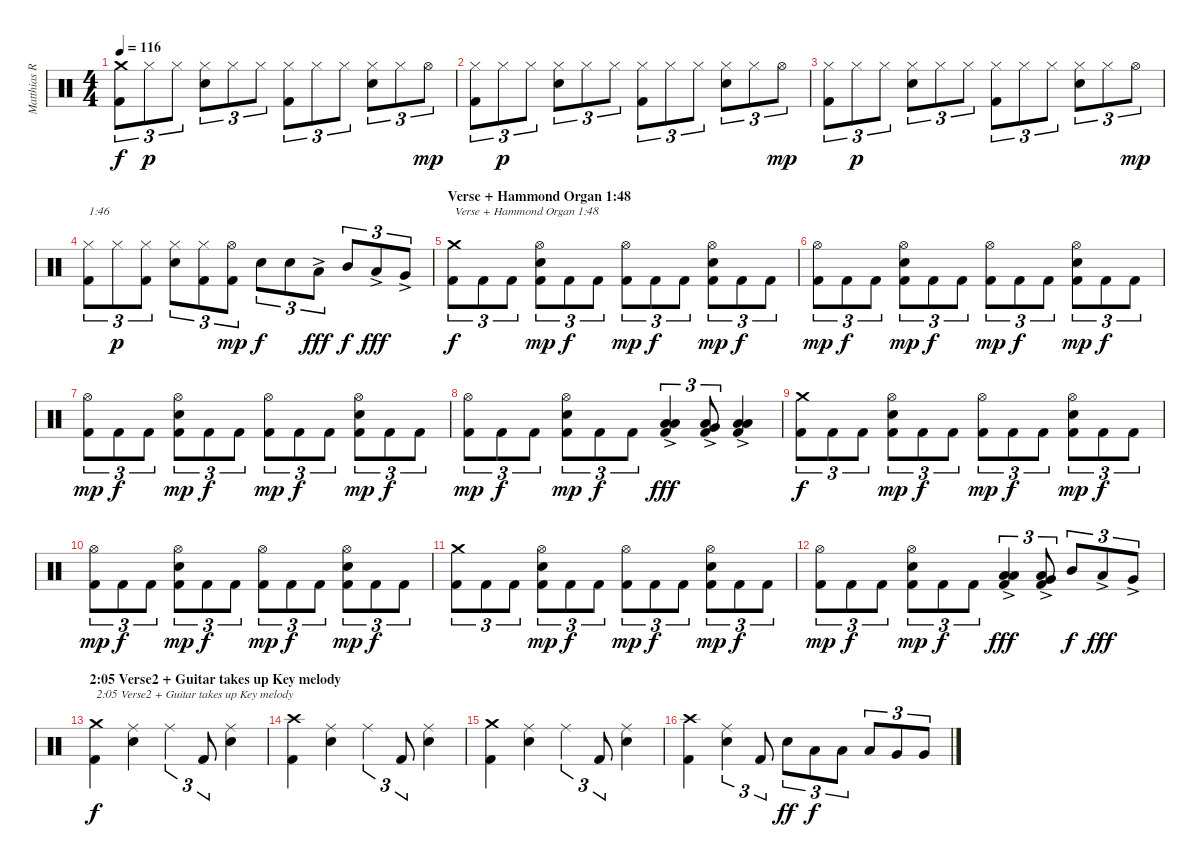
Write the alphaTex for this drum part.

\track ("Matthias R." "Matthias R") {instrument percussion}
\staff {score}
\articulation defaults
\ts (4 4)
\tempo 116
\clef neutral
\ks c
("Kick (hit) 2" "Crash medium (hit)").8{tu (3 2) dy f} "Hi-Hat (closed)".8{tu (3 2) dy p} "Hi-Hat (closed)".8{tu (3 2)} ("Electric Snare (hit)" "Hi-Hat (closed)").8{tu (3 2)} "Hi-Hat (closed)".8{tu (3 2)} "Hi-Hat (closed)".8{tu (3 2)} ("Kick (hit) 2" "Hi-Hat (closed)").8{tu (3 2)} "Hi-Hat (closed)".8{tu (3 2)} "Hi-Hat (closed)".8{tu (3 2)} ("Electric Snare (hit)" "Hi-Hat (closed)").8{tu (3 2)} "Hi-Hat (closed)".8{tu (3 2)} "Hi-Hat (open)".8{tu (3 2) dy mp} |
("Kick (hit) 2" "Hi-Hat (closed)").8{tu (3 2)} "Hi-Hat (closed)".8{tu (3 2) dy p} "Hi-Hat (closed)".8{tu (3 2)} ("Electric Snare (hit)" "Hi-Hat (closed)").8{tu (3 2)} "Hi-Hat (closed)".8{tu (3 2)} "Hi-Hat (closed)".8{tu (3 2)} ("Kick (hit) 2" "Hi-Hat (closed)").8{tu (3 2)} "Hi-Hat (closed)".8{tu (3 2)} "Hi-Hat (closed)".8{tu (3 2)} ("Electric Snare (hit)" "Hi-Hat (closed)").8{tu (3 2)} "Hi-Hat (closed)".8{tu (3 2)} "Hi-Hat (open)".8{tu (3 2) dy mp} |
("Kick (hit) 2" "Hi-Hat (closed)").8{tu (3 2)} "Hi-Hat (closed)".8{tu (3 2) dy p} "Hi-Hat (closed)".8{tu (3 2)} ("Electric Snare (hit)" "Hi-Hat (closed)").8{tu (3 2)} "Hi-Hat (closed)".8{tu (3 2)} "Hi-Hat (closed)".8{tu (3 2)} ("Kick (hit) 2" "Hi-Hat (closed)").8{tu (3 2)} "Hi-Hat (closed)".8{tu (3 2)} "Hi-Hat (closed)".8{tu (3 2)} ("Electric Snare (hit)" "Hi-Hat (closed)").8{tu (3 2)} "Hi-Hat (closed)".8{tu (3 2)} "Hi-Hat (open)".8{tu (3 2) dy mp} |
("Kick (hit) 2" "Hi-Hat (closed)").8{tu (3 2) txt "1:46"} "Hi-Hat (closed)".8{tu (3 2) dy p} ("Kick (hit) 2" "Hi-Hat (closed)").8{tu (3 2)} ("Electric Snare (hit)" "Hi-Hat (closed)").8{tu (3 2)} ("Kick (hit) 2" "Hi-Hat (closed)").8{tu (3 2)} ("Kick (hit) 2" "Hi-Hat (open)").8{tu (3 2) dy mp} "Electric Snare (hit)".8{tu (3 2) dy f} "Electric Snare (hit)".8{tu (3 2)} "Low Tom (hit)"{ac}.8{tu (3 2) dy fff} "Mid Tom (hit)".8{tu (3 2) dy f} "Low Tom (hit)"{ac}.8{tu (3 2) dy fff} "Very Low Tom (hit)"{ac}.8{tu (3 2)} |
\section ("" "Verse + Hammond Organ 1:48")
("Kick (hit) 2" "Crash medium (hit)").8{tu (3 2) txt "Verse + Hammond Organ 1:48" dy f} "Kick (hit) 2".8{tu (3 2)} "Kick (hit) 2".8{tu (3 2)} ("Kick (hit) 2" "Electric Snare (hit)" "Hi-Hat (open)").8{tu (3 2) dy mp} "Kick (hit) 2".8{tu (3 2) dy f} "Kick (hit) 2".8{tu (3 2)} ("Kick (hit) 2" "Hi-Hat (open)").8{tu (3 2) dy mp} "Kick (hit) 2".8{tu (3 2) dy f} "Kick (hit) 2".8{tu (3 2)} ("Kick (hit) 2" "Electric Snare (hit)" "Hi-Hat (open)").8{tu (3 2) dy mp} "Kick (hit) 2".8{tu (3 2) dy f} "Kick (hit) 2".8{tu (3 2)} |
("Kick (hit) 2" "Hi-Hat (open)").8{tu (3 2) dy mp} "Kick (hit) 2".8{tu (3 2) dy f} "Kick (hit) 2".8{tu (3 2)} ("Kick (hit) 2" "Electric Snare (hit)" "Hi-Hat (open)").8{tu (3 2) dy mp} "Kick (hit) 2".8{tu (3 2) dy f} "Kick (hit) 2".8{tu (3 2)} ("Kick (hit) 2" "Hi-Hat (open)").8{tu (3 2) dy mp} "Kick (hit) 2".8{tu (3 2) dy f} "Kick (hit) 2".8{tu (3 2)} ("Kick (hit) 2" "Electric Snare (hit)" "Hi-Hat (open)").8{tu (3 2) dy mp} "Kick (hit) 2".8{tu (3 2) dy f} "Kick (hit) 2".8{tu (3 2)} |
("Kick (hit) 2" "Hi-Hat (open)").8{tu (3 2) dy mp} "Kick (hit) 2".8{tu (3 2) dy f} "Kick (hit) 2".8{tu (3 2)} ("Kick (hit) 2" "Electric Snare (hit)" "Hi-Hat (open)").8{tu (3 2) dy mp} "Kick (hit) 2".8{tu (3 2) dy f} "Kick (hit) 2".8{tu (3 2)} ("Kick (hit) 2" "Hi-Hat (open)").8{tu (3 2) dy mp} "Kick (hit) 2".8{tu (3 2) dy f} "Kick (hit) 2".8{tu (3 2)} ("Kick (hit) 2" "Electric Snare (hit)" "Hi-Hat (open)").8{tu (3 2) dy mp} "Kick (hit) 2".8{tu (3 2) dy f} "Kick (hit) 2".8{tu (3 2)} |
("Kick (hit) 2" "Hi-Hat (open)").8{tu (3 2) dy mp} "Kick (hit) 2".8{tu (3 2) dy f} "Kick (hit) 2".8{tu (3 2)} ("Kick (hit) 2" "Electric Snare (hit)" "Hi-Hat (open)").8{tu (3 2) dy mp} "Kick (hit) 2".8{tu (3 2) dy f} "Kick (hit) 2".8{tu (3 2)} ("Kick (hit) 2" "Low Floor Tom (hit)"{ac} "Low Tom (hit)"{ac}).4{tu (3 2) dy fff} ("Kick (hit) 2" "Very Low Tom (hit)"{ac} "Low Tom (hit)"{ac}).8{tu (3 2)} ("Kick (hit) 2" "Low Floor Tom (hit)"{ac} "Low Tom (hit)"{ac}).4 |
("Kick (hit) 2" "Crash medium (hit)").8{tu (3 2) dy f} "Kick (hit) 2".8{tu (3 2)} "Kick (hit) 2".8{tu (3 2)} ("Kick (hit) 2" "Electric Snare (hit)" "Hi-Hat (open)").8{tu (3 2) dy mp} "Kick (hit) 2".8{tu (3 2) dy f} "Kick (hit) 2".8{tu (3 2)} ("Kick (hit) 2" "Hi-Hat (open)").8{tu (3 2) dy mp} "Kick (hit) 2".8{tu (3 2) dy f} "Kick (hit) 2".8{tu (3 2)} ("Kick (hit) 2" "Electric Snare (hit)" "Hi-Hat (open)").8{tu (3 2) dy mp} "Kick (hit) 2".8{tu (3 2) dy f} "Kick (hit) 2".8{tu (3 2)} |
("Kick (hit) 2" "Hi-Hat (open)").8{tu (3 2) dy mp} "Kick (hit) 2".8{tu (3 2) dy f} "Kick (hit) 2".8{tu (3 2)} ("Kick (hit) 2" "Electric Snare (hit)" "Hi-Hat (open)").8{tu (3 2) dy mp} "Kick (hit) 2".8{tu (3 2) dy f} "Kick (hit) 2".8{tu (3 2)} ("Kick (hit) 2" "Hi-Hat (open)").8{tu (3 2) dy mp} "Kick (hit) 2".8{tu (3 2) dy f} "Kick (hit) 2".8{tu (3 2)} ("Kick (hit) 2" "Electric Snare (hit)" "Hi-Hat (open)").8{tu (3 2) dy mp} "Kick (hit) 2".8{tu (3 2) dy f} "Kick (hit) 2".8{tu (3 2)} |
("Kick (hit) 2" "Crash medium (hit)").8{tu (3 2)} "Kick (hit) 2".8{tu (3 2)} "Kick (hit) 2".8{tu (3 2)} ("Kick (hit) 2" "Electric Snare (hit)" "Hi-Hat (open)").8{tu (3 2) dy mp} "Kick (hit) 2".8{tu (3 2) dy f} "Kick (hit) 2".8{tu (3 2)} ("Kick (hit) 2" "Hi-Hat (open)").8{tu (3 2) dy mp} "Kick (hit) 2".8{tu (3 2) dy f} "Kick (hit) 2".8{tu (3 2)} ("Kick (hit) 2" "Electric Snare (hit)" "Hi-Hat (open)").8{tu (3 2) dy mp} "Kick (hit) 2".8{tu (3 2) dy f} "Kick (hit) 2".8{tu (3 2)} |
("Kick (hit) 2" "Hi-Hat (open)").8{tu (3 2) dy mp} "Kick (hit) 2".8{tu (3 2) dy f} "Kick (hit) 2".8{tu (3 2)} ("Kick (hit) 2" "Electric Snare (hit)" "Hi-Hat (open)").8{tu (3 2) dy mp} "Kick (hit) 2".8{tu (3 2) dy f} "Kick (hit) 2".8{tu (3 2)} ("Kick (hit) 2" "Low Floor Tom (hit)" "Low Tom (hit)"{ac}).4{tu (3 2) dy fff} ("Kick (hit) 2" "Very Low Tom (hit)"{ac} "Low Tom (hit)"{ac}).8{tu (3 2)} "Mid Tom (hit)".8{tu (3 2) dy f} "Low Tom (hit)"{ac}.8{tu (3 2) dy fff} "Very Low Tom (hit)"{ac}.8{tu (3 2)} |
\section ("" "2:05 Verse2 + Guitar takes up Key melody")
("Kick (hit) 2" "Crash medium (hit)").4{txt "2:05 Verse2 + Guitar takes up Key melody" dy f} ("Electric Snare (hit)" "Ride (middle)").4 "Ride (middle)".4{tu (3 2)} "Kick (hit) 2".8{tu (3 2)} ("Electric Snare (hit)" "Ride (middle)").4 |
("Kick (hit) 2" "Crash high (hit)").4 ("Electric Snare (hit)" "Ride (middle)").4 "Ride (middle)".4{tu (3 2)} "Kick (hit) 2".8{tu (3 2)} ("Electric Snare (hit)" "Ride (middle)").4 |
("Kick (hit) 2" "Crash medium (hit)").4 ("Electric Snare (hit)" "Ride (middle)").4 "Ride (middle)".4{tu (3 2)} "Kick (hit) 2".8{tu (3 2)} ("Electric Snare (hit)" "Ride (middle)").4 |
("Kick (hit) 2" "Crash high (hit)").4 ("Electric Snare (hit)" "Ride (middle)").4{tu (3 2)} "Kick (hit) 2".8{tu (3 2)} "Electric Snare (hit)".8{tu (3 2) dy ff} "Low Tom (hit)".8{tu (3 2) dy f} "Low Tom (hit)".8{tu (3 2)} "Low Tom (hit)".8{tu (3 2)} "Very Low Tom (hit)".8{tu (3 2)} "Very Low Tom (hit)".8{tu (3 2)}
